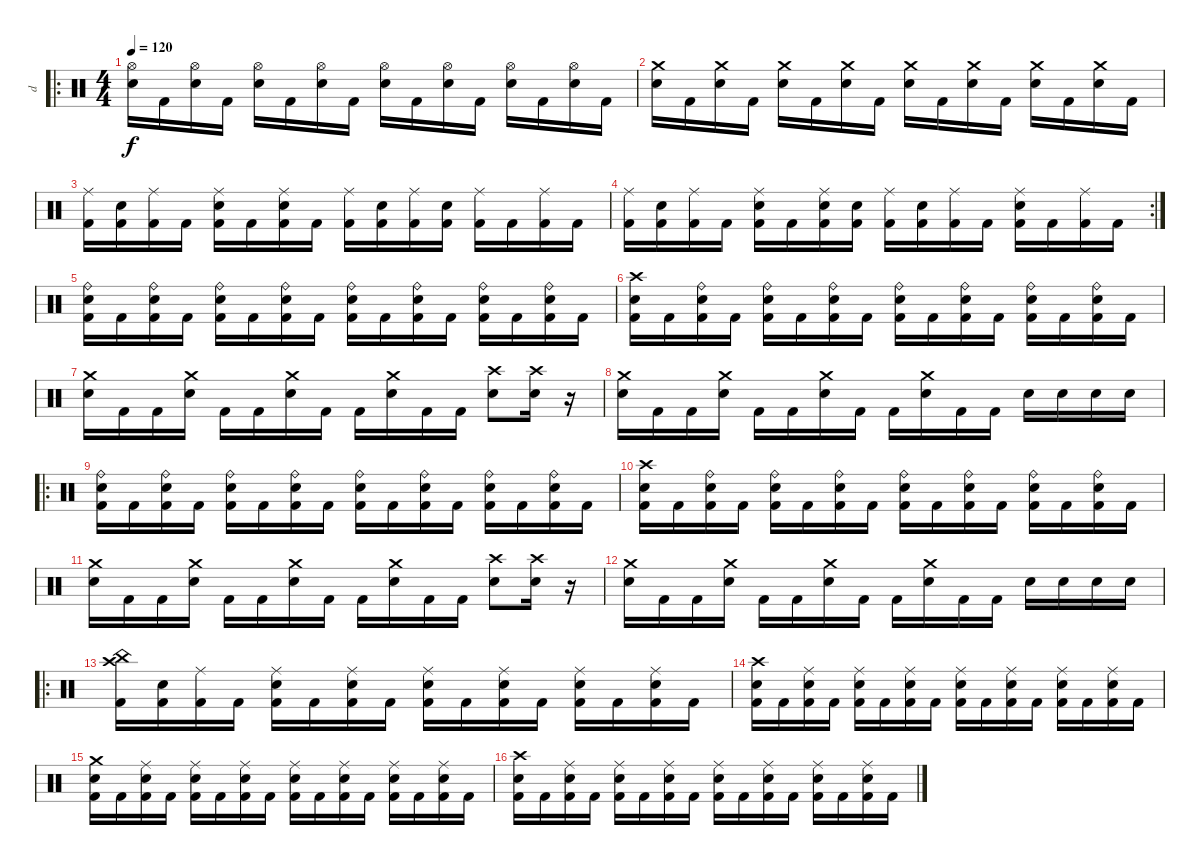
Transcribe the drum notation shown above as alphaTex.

\track ("d" "d") {instrument percussion}
\staff {score}
\articulation defaults
\ro
\ts (4 4)
\tempo 120
\clef neutral
\ks c
("Hi-Hat (open)" "Electric Snare (hit)").16{dy f} "Kick (hit) 2".16 ("Hi-Hat (open)" "Electric Snare (hit)").16 "Kick (hit) 2".16 ("Hi-Hat (open)" "Electric Snare (hit)").16 "Kick (hit) 2".16 ("Hi-Hat (open)" "Electric Snare (hit)").16 "Kick (hit) 2".16 ("Hi-Hat (open)" "Electric Snare (hit)").16 "Kick (hit) 2".16 ("Hi-Hat (open)" "Electric Snare (hit)").16 "Kick (hit) 2".16 ("Hi-Hat (open)" "Electric Snare (hit)").16 "Kick (hit) 2".16 ("Hi-Hat (open)" "Electric Snare (hit)").16 "Kick (hit) 2".16 |
("Crash medium (hit)" "Electric Snare (hit)").16 "Kick (hit) 2".16 ("Crash medium (hit)" "Electric Snare (hit)").16 "Kick (hit) 2".16 ("Crash medium (hit)" "Electric Snare (hit)").16 "Kick (hit) 2".16 ("Crash medium (hit)" "Electric Snare (hit)").16 "Kick (hit) 2".16 ("Crash medium (hit)" "Electric Snare (hit)").16 "Kick (hit) 2".16 ("Crash medium (hit)" "Electric Snare (hit)").16 "Kick (hit) 2".16 ("Crash medium (hit)" "Electric Snare (hit)").16 "Kick (hit) 2".16 ("Crash medium (hit)" "Electric Snare (hit)").16 "Kick (hit) 2".16 |
("Ride (middle)" "Kick (hit) 2").16 ("Electric Snare (hit)" "Kick (hit) 2").16 ("Ride (middle)" "Kick (hit) 2").16 "Kick (hit) 2".16 ("Ride (middle)" "Electric Snare (hit)" "Kick (hit) 2").16 "Kick (hit) 2".16 ("Ride (middle)" "Electric Snare (hit)" "Kick (hit) 2").16 "Kick (hit) 2".16 ("Ride (middle)" "Kick (hit) 2").16 ("Electric Snare (hit)" "Kick (hit) 2").16 ("Ride (middle)" "Kick (hit) 2").16 ("Electric Snare (hit)" "Kick (hit) 2").16 ("Ride (middle)" "Kick (hit) 2").16 "Kick (hit) 2".16 ("Ride (middle)" "Kick (hit) 2").16 "Kick (hit) 2".16 |
\rc 2
("Ride (middle)" "Kick (hit) 2").16 ("Electric Snare (hit)" "Kick (hit) 2").16 ("Ride (middle)" "Kick (hit) 2").16 "Kick (hit) 2".16 ("Ride (middle)" "Electric Snare (hit)" "Kick (hit) 2").16 "Kick (hit) 2".16 ("Ride (middle)" "Electric Snare (hit)" "Kick (hit) 2").16 ("Electric Snare (hit)" "Kick (hit) 2").16 ("Ride (middle)" "Kick (hit) 2").16 ("Electric Snare (hit)" "Kick (hit) 2").16 ("Ride (middle)" "Kick (hit) 2").16 "Kick (hit) 2".16 ("Ride (middle)" "Electric Snare (hit)" "Kick (hit) 2").16 "Kick (hit) 2".16 ("Ride (middle)" "Kick (hit) 2").16 "Kick (hit) 2".16 |
("Ride (bell)" "Electric Snare (hit)" "Kick (hit) 2").16 "Kick (hit) 2".16 ("Ride (bell)" "Electric Snare (hit)" "Kick (hit) 2").16 "Kick (hit) 2".16 ("Ride (bell)" "Electric Snare (hit)" "Kick (hit) 2").16 "Kick (hit) 2".16 ("Ride (bell)" "Electric Snare (hit)" "Kick (hit) 2").16 "Kick (hit) 2".16 ("Ride (bell)" "Electric Snare (hit)" "Kick (hit) 2").16 "Kick (hit) 2".16 ("Ride (bell)" "Electric Snare (hit)" "Kick (hit) 2").16 "Kick (hit) 2".16 ("Ride (bell)" "Electric Snare (hit)" "Kick (hit) 2").16 "Kick (hit) 2".16 ("Ride (bell)" "Electric Snare (hit)" "Kick (hit) 2").16 "Kick (hit) 2".16 |
("Crash high (hit)" "Electric Snare (hit)" "Kick (hit) 2").16 "Kick (hit) 2".16 ("Ride (bell)" "Electric Snare (hit)" "Kick (hit) 2").16 "Kick (hit) 2".16 ("Ride (bell)" "Electric Snare (hit)" "Kick (hit) 2").16 "Kick (hit) 2".16 ("Ride (bell)" "Electric Snare (hit)" "Kick (hit) 2").16 "Kick (hit) 2".16 ("Ride (bell)" "Electric Snare (hit)" "Kick (hit) 2").16 "Kick (hit) 2".16 ("Ride (bell)" "Electric Snare (hit)" "Kick (hit) 2").16 "Kick (hit) 2".16 ("Ride (bell)" "Electric Snare (hit)" "Kick (hit) 2").16 "Kick (hit) 2".16 ("Ride (bell)" "Electric Snare (hit)" "Kick (hit) 2").16 "Kick (hit) 2".16 |
("Crash medium (hit)" "Electric Snare (hit)").16 "Kick (hit) 2".16 "Kick (hit) 2".16 ("Crash medium (hit)" "Electric Snare (hit)").16 "Kick (hit) 2".16 "Kick (hit) 2".16 ("Crash medium (hit)" "Electric Snare (hit)").16 "Kick (hit) 2".16 "Kick (hit) 2".16 ("Crash medium (hit)" "Electric Snare (hit)").16 "Kick (hit) 2".16 "Kick (hit) 2".16 ("Crash high (hit)" "Electric Snare (hit)").8 ("Crash high (hit)" "Electric Snare (hit)").16 r.16 |
("Crash medium (hit)" "Electric Snare (hit)").16 "Kick (hit) 2".16 "Kick (hit) 2".16 ("Crash medium (hit)" "Electric Snare (hit)").16 "Kick (hit) 2".16 "Kick (hit) 2".16 ("Crash medium (hit)" "Electric Snare (hit)").16 "Kick (hit) 2".16 "Kick (hit) 2".16 ("Crash medium (hit)" "Electric Snare (hit)").16 "Kick (hit) 2".16 "Kick (hit) 2".16 "Electric Snare (hit)".16 "Electric Snare (hit)".16 "Electric Snare (hit)".16 "Electric Snare (hit)".16 |
\ro
("Ride (bell)" "Electric Snare (hit)" "Kick (hit) 2").16 "Kick (hit) 2".16 ("Ride (bell)" "Electric Snare (hit)" "Kick (hit) 2").16 "Kick (hit) 2".16 ("Ride (bell)" "Electric Snare (hit)" "Kick (hit) 2").16 "Kick (hit) 2".16 ("Ride (bell)" "Electric Snare (hit)" "Kick (hit) 2").16 "Kick (hit) 2".16 ("Ride (bell)" "Electric Snare (hit)" "Kick (hit) 2").16 "Kick (hit) 2".16 ("Ride (bell)" "Electric Snare (hit)" "Kick (hit) 2").16 "Kick (hit) 2".16 ("Ride (bell)" "Electric Snare (hit)" "Kick (hit) 2").16 "Kick (hit) 2".16 ("Ride (bell)" "Electric Snare (hit)" "Kick (hit) 2").16 "Kick (hit) 2".16 |
("Crash high (hit)" "Electric Snare (hit)" "Kick (hit) 2").16 "Kick (hit) 2".16 ("Ride (bell)" "Electric Snare (hit)" "Kick (hit) 2").16 "Kick (hit) 2".16 ("Ride (bell)" "Electric Snare (hit)" "Kick (hit) 2").16 "Kick (hit) 2".16 ("Ride (bell)" "Electric Snare (hit)" "Kick (hit) 2").16 "Kick (hit) 2".16 ("Ride (bell)" "Electric Snare (hit)" "Kick (hit) 2").16 "Kick (hit) 2".16 ("Ride (bell)" "Electric Snare (hit)" "Kick (hit) 2").16 "Kick (hit) 2".16 ("Ride (bell)" "Electric Snare (hit)" "Kick (hit) 2").16 "Kick (hit) 2".16 ("Ride (bell)" "Electric Snare (hit)" "Kick (hit) 2").16 "Kick (hit) 2".16 |
("Crash medium (hit)" "Electric Snare (hit)").16 "Kick (hit) 2".16 "Kick (hit) 2".16 ("Crash medium (hit)" "Electric Snare (hit)").16 "Kick (hit) 2".16 "Kick (hit) 2".16 ("Crash medium (hit)" "Electric Snare (hit)").16 "Kick (hit) 2".16 "Kick (hit) 2".16 ("Crash medium (hit)" "Electric Snare (hit)").16 "Kick (hit) 2".16 "Kick (hit) 2".16 ("Crash high (hit)" "Electric Snare (hit)").8 ("Crash high (hit)" "Electric Snare (hit)").16 r.16 |
("Crash medium (hit)" "Electric Snare (hit)").16 "Kick (hit) 2".16 "Kick (hit) 2".16 ("Crash medium (hit)" "Electric Snare (hit)").16 "Kick (hit) 2".16 "Kick (hit) 2".16 ("Crash medium (hit)" "Electric Snare (hit)").16 "Kick (hit) 2".16 "Kick (hit) 2".16 ("Crash medium (hit)" "Electric Snare (hit)").16 "Kick (hit) 2".16 "Kick (hit) 2".16 "Electric Snare (hit)".16 "Electric Snare (hit)".16 "Electric Snare (hit)".16 "Electric Snare (hit)".16 |
\ro
("Crash high (hit)" "China (hit)" "Kick (hit) 2").16 ("Electric Snare (hit)" "Kick (hit) 2").16 ("Ride (middle)" "Kick (hit) 2").16 "Kick (hit) 2".16 ("Ride (middle)" "Electric Snare (hit)" "Kick (hit) 2").16 "Kick (hit) 2".16 ("Ride (middle)" "Electric Snare (hit)" "Kick (hit) 2").16 "Kick (hit) 2".16 ("Ride (middle)" "Electric Snare (hit)" "Kick (hit) 2").16 "Kick (hit) 2".16 ("Ride (middle)" "Electric Snare (hit)" "Kick (hit) 2").16 "Kick (hit) 2".16 ("Ride (middle)" "Electric Snare (hit)" "Kick (hit) 2").16 "Kick (hit) 2".16 ("Ride (middle)" "Electric Snare (hit)" "Kick (hit) 2").16 "Kick (hit) 2".16 |
("Crash high (hit)" "Electric Snare (hit)" "Kick (hit) 2").16 "Kick (hit) 2".16 ("Ride (middle)" "Electric Snare (hit)" "Kick (hit) 2").16 "Kick (hit) 2".16 ("Ride (middle)" "Electric Snare (hit)" "Kick (hit) 2").16 "Kick (hit) 2".16 ("Ride (middle)" "Electric Snare (hit)" "Kick (hit) 2").16 "Kick (hit) 2".16 ("Ride (middle)" "Electric Snare (hit)" "Kick (hit) 2").16 "Kick (hit) 2".16 ("Ride (middle)" "Electric Snare (hit)" "Kick (hit) 2").16 "Kick (hit) 2".16 ("Ride (middle)" "Electric Snare (hit)" "Kick (hit) 2").16 "Kick (hit) 2".16 ("Ride (middle)" "Electric Snare (hit)" "Kick (hit) 2").16 "Kick (hit) 2".16 |
("Crash medium (hit)" "Electric Snare (hit)" "Kick (hit) 2").16 "Kick (hit) 2".16 ("Ride (middle)" "Electric Snare (hit)" "Kick (hit) 2").16 "Kick (hit) 2".16 ("Ride (middle)" "Electric Snare (hit)" "Kick (hit) 2").16 "Kick (hit) 2".16 ("Ride (middle)" "Electric Snare (hit)" "Kick (hit) 2").16 "Kick (hit) 2".16 ("Ride (middle)" "Electric Snare (hit)" "Kick (hit) 2").16 "Kick (hit) 2".16 ("Ride (middle)" "Electric Snare (hit)" "Kick (hit) 2").16 "Kick (hit) 2".16 ("Ride (middle)" "Electric Snare (hit)" "Kick (hit) 2").16 "Kick (hit) 2".16 ("Ride (middle)" "Electric Snare (hit)" "Kick (hit) 2").16 "Kick (hit) 2".16 |
("Crash high (hit)" "Electric Snare (hit)" "Kick (hit) 2").16 "Kick (hit) 2".16 ("Ride (middle)" "Electric Snare (hit)" "Kick (hit) 2").16 "Kick (hit) 2".16 ("Ride (middle)" "Electric Snare (hit)" "Kick (hit) 2").16 "Kick (hit) 2".16 ("Ride (middle)" "Electric Snare (hit)" "Kick (hit) 2").16 "Kick (hit) 2".16 ("Ride (middle)" "Electric Snare (hit)" "Kick (hit) 2").16 "Kick (hit) 2".16 ("Ride (middle)" "Electric Snare (hit)" "Kick (hit) 2").16 "Kick (hit) 2".16 ("Ride (middle)" "Electric Snare (hit)" "Kick (hit) 2").16 "Kick (hit) 2".16 ("Ride (middle)" "Electric Snare (hit)" "Kick (hit) 2").16 "Kick (hit) 2".16
